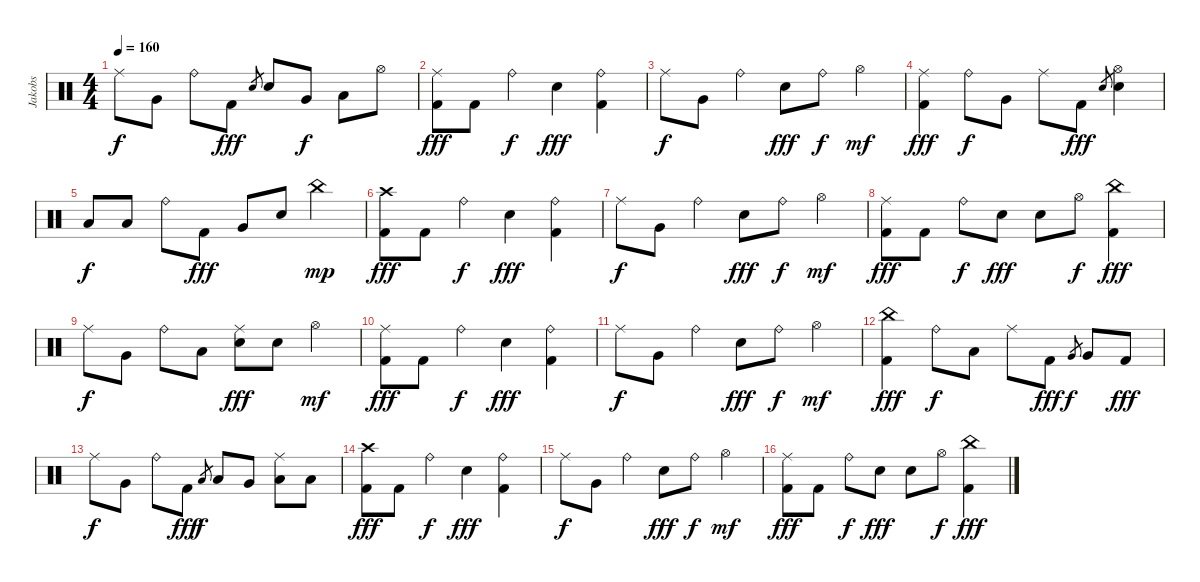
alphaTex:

\track ("Jakobs" "Jakobs") {instrument percussion}
\staff {score}
\articulation defaults
\ts (4 4)
\tempo 160
\clef neutral
\ks c "Ride (middle)".8{dy f} "Very Low Tom (hit)".8 "Ride (bell)".8 "Kick (hit) 2".8{dy fff} "Snare (hit) 2".8{gr} "Snare (hit) 2".8 "Very Low Tom (hit)".8{dy f} "Low Floor Tom (hit)".8 "Hi-Hat (open)".8
|
("Ride (middle)" "Kick (hit) 2").8{dy fff} "Kick (hit) 2".8 "Ride (bell)".4{dy f} "Snare (hit) 2".4{dy fff} ("Ride (bell)" "Kick (hit) 2").4 |
"Ride (middle)".8{dy f} "Very Low Tom (hit)".8 "Ride (bell)".4 "Snare (hit) 2".8{dy fff} "Ride (bell)".8{dy f} "Hi-Hat (open)".4{dy mf} |
("Ride (middle)" "Kick (hit) 2").4{dy fff} "Ride (bell)".8{dy f} "Very Low Tom (hit)".8 "Ride (middle)".8 "Kick (hit) 2".8{dy fff} "Snare (hit) 2".8{gr} ("Hi-Hat (open)" "Snare (hit) 2").4 |
"Low Floor Tom (hit)".8{dy f} "Low Tom (hit)".8 "Ride (bell)".8 "Kick (hit) 2".8{dy fff} "Very Low Tom (hit)".8 "Snare (hit) 2".8 "China (hit)".4{dy mp} |
("Crash high (hit)" "Kick (hit) 2").8{dy fff} "Kick (hit) 2".8 "Ride (bell)".4{dy f} "Snare (hit) 2".4{dy fff} ("Ride (bell)" "Kick (hit) 2").4 |
"Ride (middle)".8{dy f} "Very Low Tom (hit)".8 "Ride (bell)".4 "Snare (hit) 2".8{dy fff} "Ride (bell)".8{dy f} "Hi-Hat (open)".4{dy mf} |
("Ride (middle)" "Kick (hit) 2").8{dy fff} "Kick (hit) 2".8 "Ride (bell)".8{dy f} "Snare (hit) 2".8{dy fff} "Snare (hit) 2".8 "Hi-Hat (open)".8{dy f} ("China (hit)" "Kick (hit) 2").4{dy fff} |
"Ride (middle)".8{dy f} "Very Low Tom (hit)".8 "Ride (bell)".8 "Low Floor Tom (hit)".8 ("Ride (middle)" "Snare (hit) 2").8{dy fff} "Snare (hit) 2".8 "Hi-Hat (open)".4{dy mf} |
("Ride (middle)" "Kick (hit) 2").8{dy fff} "Kick (hit) 2".8 "Ride (bell)".4{dy f} "Snare (hit) 2".4{dy fff} ("Ride (bell)" "Kick (hit) 2").4 |
"Ride (middle)".8{dy f} "Very Low Tom (hit)".8 "Ride (bell)".4 "Snare (hit) 2".8{dy fff} "Ride (bell)".8{dy f} "Hi-Hat (open)".4{dy mf} |
("China (hit)" "Kick (hit) 2").4{dy fff} "Ride (bell)".8{dy f} "Low Tom (hit)".8 "Ride (middle)".8 "Kick (hit) 2".8{dy fff} "Very Low Tom (hit)".8{gr dy f} "Very Low Tom (hit)".8 "Kick (hit) 2".8{dy fff} |
"Ride (middle)".8{dy f} "Very Low Tom (hit)".8 "Ride (bell)".8 "Kick (hit) 2".8{dy fff} "Low Tom (hit)".8{gr dy f} "Low Tom (hit)".8 "Very Low Tom (hit)".8 ("Ride (middle)" "Low Floor Tom (hit)").8 "Low Floor Tom (hit)".8 |
("Crash high (hit)" "Kick (hit) 2").8{dy fff} "Kick (hit) 2".8 "Ride (bell)".4{dy f} "Snare (hit) 2".4{dy fff} ("Ride (bell)" "Kick (hit) 2").4 |
"Ride (middle)".8{dy f} "Very Low Tom (hit)".8 "Ride (bell)".4 "Snare (hit) 2".8{dy fff} "Ride (bell)".8{dy f} "Hi-Hat (open)".4{dy mf} |
("Ride (middle)" "Kick (hit) 2").8{dy fff} "Kick (hit) 2".8 "Ride (bell)".8{dy f} "Snare (hit) 2".8{dy fff} "Snare (hit) 2".8 "Hi-Hat (open)".8{dy f} ("China (hit)" "Kick (hit) 2").4{dy fff}
